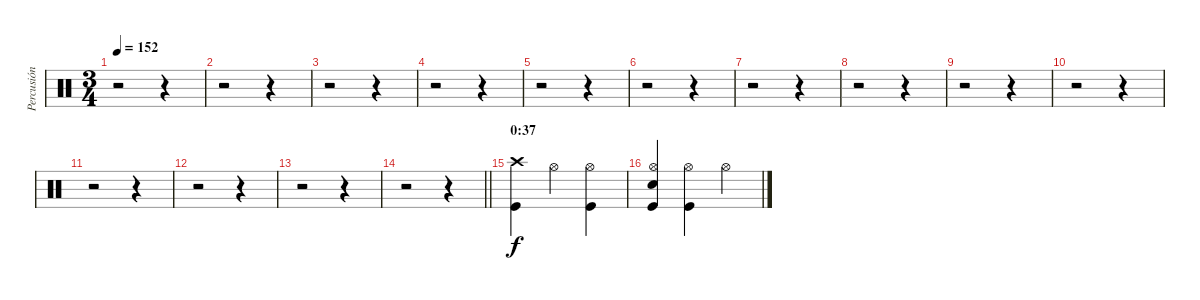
\track ("Percusión" "Percusión") {instrument percussion}
\staff {score}
\articulation defaults
\ts (3 4)
\tempo 152
\clef neutral
\ks c
r.2{dy f} r.4 |
r.2 r.4 |
r.2 r.4 |
r.2 r.4 |
r.2 r.4 |
r.2 r.4 |
r.2 r.4 |
r.2 r.4 |
r.2 r.4 |
r.2 r.4 |
r.2 r.4 |
r.2 r.4 |
r.2 r.4 |
\barLineRight lightlight
r.2 r.4 |
\section ("" "0:37")
("Crash high (hit)" "Kick (hit)").4 "Hi-Hat (open)".4 ("Hi-Hat (open)" "Kick (hit)").4 |
("Hi-Hat (open)" "Snare (hit) 2" "Kick (hit)").4 ("Hi-Hat (open)" "Kick (hit)").4 "Hi-Hat (open)".4
